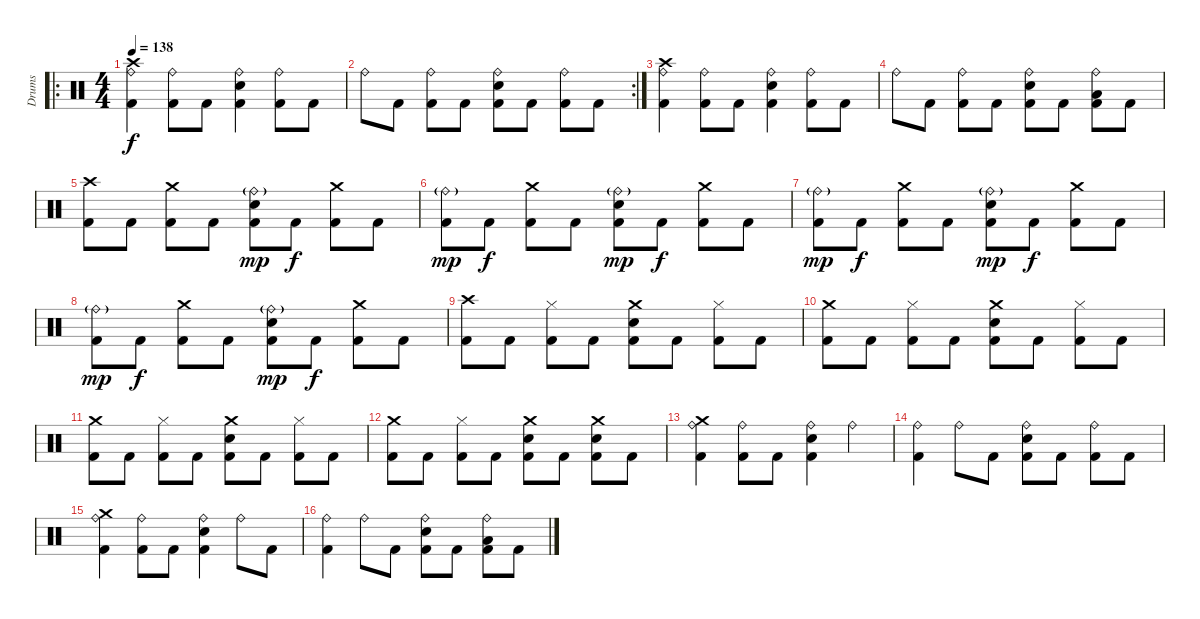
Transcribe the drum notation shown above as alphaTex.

\track ("Drums" "Drums") {instrument percussion}
\staff {score}
\articulation defaults
\ro
\ts (4 4)
\tempo 138
\clef neutral
\ks c
("Crash high (hit)" "Ride (bell)" "Kick (hit) 2").4{dy f} ("Ride (bell)" "Kick (hit) 2").8 "Kick (hit) 2".8 ("Ride (bell)" "Electric Snare (hit)" "Kick (hit) 2").4 ("Ride (bell)" "Kick (hit) 2").8 "Kick (hit) 2".8 |
\rc 2 "Ride (bell)".8 "Kick (hit) 2".8
("Ride (bell)" "Kick (hit) 2").8 "Kick (hit) 2".8 ("Ride (bell)" "Electric Snare (hit)" "Kick (hit) 2").8 "Kick (hit) 2".8 ("Ride (bell)" "Kick (hit) 2").8 "Kick (hit) 2".8 |
("Crash high (hit)" "Ride (bell)" "Kick (hit) 2").4 ("Ride (bell)" "Kick (hit) 2").8 "Kick (hit) 2".8 ("Ride (bell)" "Electric Snare (hit)" "Kick (hit) 2").4 ("Ride (bell)" "Kick (hit) 2").8 "Kick (hit) 2".8 |
"Ride (bell)".8 "Kick (hit) 2".8 ("Ride (bell)" "Kick (hit) 2").8 "Kick (hit) 2".8 ("Ride (bell)" "Electric Snare (hit)" "Kick (hit) 2").8 "Kick (hit) 2".8 ("Ride (bell)" "Low Floor Tom (hit)" "Kick (hit) 2").8 "Kick (hit) 2".8 |
("Crash high (hit)" "Kick (hit) 2").8 "Kick (hit) 2".8 ("Crash medium (hit)" "Kick (hit) 2").8 "Kick (hit) 2".8 ("Ride (bell)"{g} "Electric Snare (hit)" "Kick (hit) 2").8{dy mp} "Kick (hit) 2".8{dy f} ("Crash medium (hit)" "Kick (hit) 2").8 "Kick (hit) 2".8 |
("Ride (bell)"{g} "Kick (hit) 2").8{dy mp} "Kick (hit) 2".8{dy f} ("Crash medium (hit)" "Kick (hit) 2").8 "Kick (hit) 2".8 ("Ride (bell)"{g} "Electric Snare (hit)" "Kick (hit) 2").8{dy mp} "Kick (hit) 2".8{dy f} ("Crash medium (hit)" "Kick (hit) 2").8 "Kick (hit) 2".8 |
("Ride (bell)"{g} "Kick (hit) 2").8{dy mp} "Kick (hit) 2".8{dy f} ("Crash medium (hit)" "Kick (hit) 2").8 "Kick (hit) 2".8 ("Ride (bell)"{g} "Electric Snare (hit)" "Kick (hit) 2").8{dy mp} "Kick (hit) 2".8{dy f} ("Crash medium (hit)" "Kick (hit) 2").8 "Kick (hit) 2".8 |
("Ride (bell)"{g} "Kick (hit) 2").8{dy mp} "Kick (hit) 2".8{dy f} ("Crash medium (hit)" "Kick (hit) 2").8 "Kick (hit) 2".8 ("Ride (bell)"{g} "Electric Snare (hit)" "Kick (hit) 2").8{dy mp} "Kick (hit) 2".8{dy f} ("Crash medium (hit)" "Kick (hit) 2").8 "Kick (hit) 2".8 |
("Crash high (hit)" "Kick (hit) 2").8 "Kick (hit) 2".8 ("Hi-Hat (closed)" "Kick (hit) 2").8 "Kick (hit) 2".8 ("Crash medium (hit)" "Electric Snare (hit)" "Kick (hit) 2").8 "Kick (hit) 2".8 ("Hi-Hat (closed)" "Kick (hit) 2").8 "Kick (hit) 2".8 |
("Crash medium (hit)" "Kick (hit) 2").8 "Kick (hit) 2".8 ("Hi-Hat (closed)" "Kick (hit) 2").8 "Kick (hit) 2".8 ("Crash medium (hit)" "Electric Snare (hit)" "Kick (hit) 2").8 "Kick (hit) 2".8 ("Hi-Hat (closed)" "Kick (hit) 2").8 "Kick (hit) 2".8 |
("Crash medium (hit)" "Kick (hit) 2").8 "Kick (hit) 2".8 ("Hi-Hat (closed)" "Kick (hit) 2").8 "Kick (hit) 2".8 ("Crash medium (hit)" "Electric Snare (hit)" "Kick (hit) 2").8 "Kick (hit) 2".8 ("Hi-Hat (closed)" "Kick (hit) 2").8 "Kick (hit) 2".8 |
("Crash medium (hit)" "Kick (hit) 2").8 "Kick (hit) 2".8 ("Hi-Hat (closed)" "Kick (hit) 2").8 "Kick (hit) 2".8 ("Crash medium (hit)" "Electric Snare (hit)" "Kick (hit) 2").8 "Kick (hit) 2".8 ("Crash medium (hit)" "Electric Snare (hit)" "Kick (hit) 2").8 "Kick (hit) 2".8 |
("Crash medium (hit)" "Ride (bell)" "Kick (hit) 2").4 ("Ride (bell)" "Kick (hit) 2").8 "Kick (hit) 2".8 ("Ride (bell)" "Electric Snare (hit)" "Kick (hit) 2").4 "Ride (bell)".4 |
("Ride (bell)" "Kick (hit) 2").4 "Ride (bell)".8 "Kick (hit) 2".8 ("Ride (bell)" "Electric Snare (hit)" "Kick (hit) 2").8 "Kick (hit) 2".8 ("Ride (bell)" "Kick (hit) 2").8 "Kick (hit) 2".8 |
("Crash medium (hit)" "Ride (bell)" "Kick (hit) 2").4 ("Ride (bell)" "Kick (hit) 2").8 "Kick (hit) 2".8 ("Ride (bell)" "Electric Snare (hit)" "Kick (hit) 2").4 "Ride (bell)".8 "Kick (hit) 2".8 |
("Ride (bell)" "Kick (hit) 2").4 "Ride (bell)".8 "Kick (hit) 2".8 ("Ride (bell)" "Electric Snare (hit)" "Kick (hit) 2").8 "Kick (hit) 2".8 ("Ride (bell)" "Low Floor Tom (hit)" "Kick (hit) 2").8 "Kick (hit) 2".8
